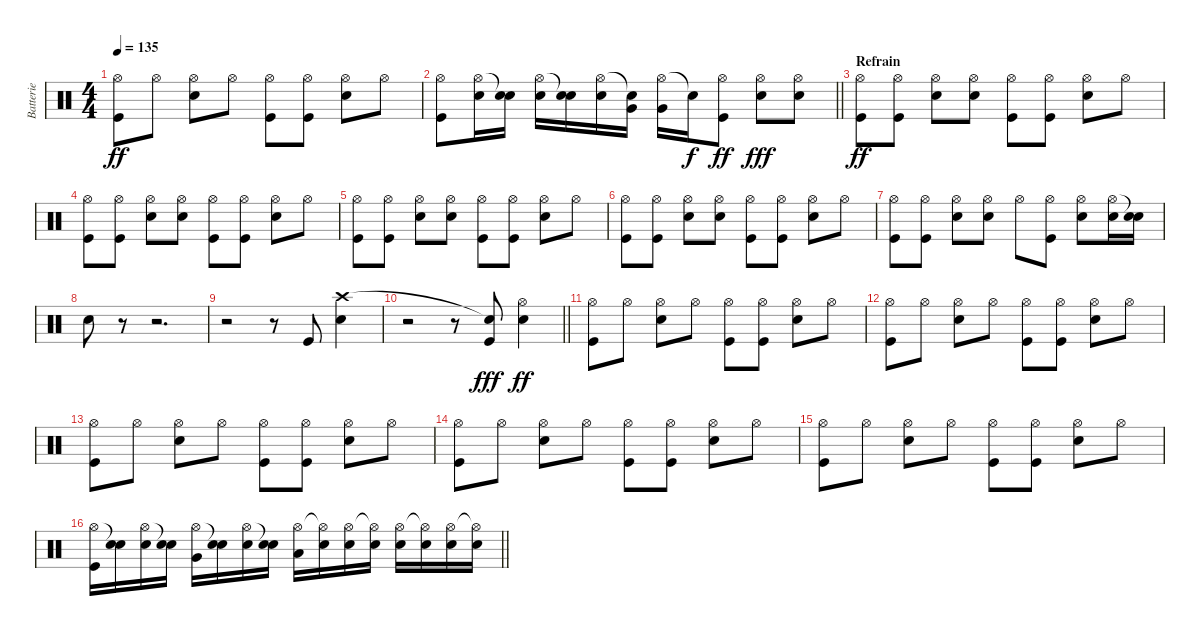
\track ("Batterie" "Batterie") {instrument percussion}
\staff {score}
\articulation defaults
\ts (4 4)
\tempo 135
\clef neutral
\ks c
("Hi-Hat (open)" "Kick (hit)").8{dy ff} "Hi-Hat (open)".8 ("Hi-Hat (open)" "Electric Snare (hit)").8 "Hi-Hat (open)".8 ("Hi-Hat (open)" "Kick (hit)").8 ("Hi-Hat (open)" "Kick (hit)").8 ("Hi-Hat (open)" "Electric Snare (hit)").8 "Hi-Hat (open)".8 |
\barLineRight lightlight
("Hi-Hat (open)" "Kick (hit)").8 ("Hi-Hat (open)" "Electric Snare (hit)").16 ("Snare (hit)"{t} "Electric Snare (hit)").16 ("Hi-Hat (open)" "Electric Snare (hit)").16 ("Snare (hit)"{t} "Electric Snare (hit)").16 ("Hi-Hat (open)" "Electric Snare (hit)").16 ("Snare (hit)"{t} "Very Low Tom (hit)").16 ("Hi-Hat (open)" "Very Low Tom (hit)").16 "Snare (hit)"{t}.16{dy f} ("Hi-Hat (open)" "Kick (hit)").8{dy ff} ("Hi-Hat (open)" "Electric Snare (hit)").8{dy fff} ("Hi-Hat (open)" "Electric Snare (hit)").8 |
\section ("" "Refrain")
("Hi-Hat (open)" "Kick (hit)").8{dy ff} ("Hi-Hat (open)" "Kick (hit)").8 ("Hi-Hat (open)" "Electric Snare (hit)").8 ("Hi-Hat (open)" "Electric Snare (hit)").8 ("Hi-Hat (open)" "Kick (hit)").8 ("Hi-Hat (open)" "Kick (hit)").8 ("Hi-Hat (open)" "Electric Snare (hit)").8 "Hi-Hat (open)".8 |
("Hi-Hat (open)" "Kick (hit)").8 ("Hi-Hat (open)" "Kick (hit)").8 ("Hi-Hat (open)" "Electric Snare (hit)").8 ("Hi-Hat (open)" "Electric Snare (hit)").8 ("Hi-Hat (open)" "Kick (hit)").8 ("Hi-Hat (open)" "Kick (hit)").8 ("Hi-Hat (open)" "Electric Snare (hit)").8 "Hi-Hat (open)".8 |
("Hi-Hat (open)" "Kick (hit)").8 ("Hi-Hat (open)" "Kick (hit)").8 ("Hi-Hat (open)" "Electric Snare (hit)").8 ("Hi-Hat (open)" "Electric Snare (hit)").8 ("Hi-Hat (open)" "Kick (hit)").8 ("Hi-Hat (open)" "Kick (hit)").8 ("Hi-Hat (open)" "Electric Snare (hit)").8 "Hi-Hat (open)".8 |
("Hi-Hat (open)" "Kick (hit)").8 ("Hi-Hat (open)" "Kick (hit)").8 ("Hi-Hat (open)" "Electric Snare (hit)").8 ("Hi-Hat (open)" "Electric Snare (hit)").8 ("Hi-Hat (open)" "Kick (hit)").8 ("Hi-Hat (open)" "Kick (hit)").8 ("Hi-Hat (open)" "Electric Snare (hit)").8 "Hi-Hat (open)".8 |
("Hi-Hat (open)" "Kick (hit)").8 ("Hi-Hat (open)" "Kick (hit)").8 ("Hi-Hat (open)" "Electric Snare (hit)").8 ("Hi-Hat (open)" "Electric Snare (hit)").8 "Hi-Hat (open)".8 ("Hi-Hat (open)" "Kick (hit)").8 ("Hi-Hat (open)" "Electric Snare (hit)").8 ("Hi-Hat (open)" "Electric Snare (hit)").16 ("Snare (hit)"{t} "Electric Snare (hit)").16 |
"Electric Snare (hit)".8 r.8 r.2{d} |
r.2 r.8 "Kick (hit)".8 ("Crash high (hit)" "Electric Snare (hit)").4 |
\barLineRight lightlight
r.2 r.8 ("Snare (hit)"{t} "Kick (hit)").8{dy fff} ("Hi-Hat (open)" "Electric Snare (hit)").4{dy ff} |
\section ("" "")
("Hi-Hat (open)" "Kick (hit)").8 "Hi-Hat (open)".8 ("Hi-Hat (open)" "Electric Snare (hit)").8 "Hi-Hat (open)".8 ("Hi-Hat (open)" "Kick (hit)").8 ("Hi-Hat (open)" "Kick (hit)").8 ("Hi-Hat (open)" "Electric Snare (hit)").8 "Hi-Hat (open)".8 |
("Hi-Hat (open)" "Kick (hit)").8 "Hi-Hat (open)".8 ("Hi-Hat (open)" "Electric Snare (hit)").8 "Hi-Hat (open)".8 ("Hi-Hat (open)" "Kick (hit)").8 ("Hi-Hat (open)" "Kick (hit)").8 ("Hi-Hat (open)" "Electric Snare (hit)").8 "Hi-Hat (open)".8 |
("Hi-Hat (open)" "Kick (hit)").8 "Hi-Hat (open)".8 ("Hi-Hat (open)" "Electric Snare (hit)").8 "Hi-Hat (open)".8 ("Hi-Hat (open)" "Kick (hit)").8 ("Hi-Hat (open)" "Kick (hit)").8 ("Hi-Hat (open)" "Electric Snare (hit)").8 "Hi-Hat (open)".8 |
("Hi-Hat (open)" "Kick (hit)").8 "Hi-Hat (open)".8 ("Hi-Hat (open)" "Electric Snare (hit)").8 "Hi-Hat (open)".8 ("Hi-Hat (open)" "Kick (hit)").8 ("Hi-Hat (open)" "Kick (hit)").8 ("Hi-Hat (open)" "Electric Snare (hit)").8 "Hi-Hat (open)".8 |
("Hi-Hat (open)" "Kick (hit)").8 "Hi-Hat (open)".8 ("Hi-Hat (open)" "Electric Snare (hit)").8 "Hi-Hat (open)".8 ("Hi-Hat (open)" "Kick (hit)").8 ("Hi-Hat (open)" "Kick (hit)").8 ("Hi-Hat (open)" "Electric Snare (hit)").8 "Hi-Hat (open)".8 |
\barLineRight lightlight
("Hi-Hat (open)" "Kick (hit)").16 ("Snare (hit)"{t} "Electric Snare (hit)").16 ("Hi-Hat (open)" "Electric Snare (hit)").16 ("Snare (hit)"{t} "Electric Snare (hit)").16 ("Hi-Hat (open)" "Very Low Tom (hit)").16 ("Snare (hit)"{t} "Electric Snare (hit)").16 ("Hi-Hat (open)" "Electric Snare (hit)").16 ("Snare (hit)"{t} "Electric Snare (hit)").16 ("Hi-Hat (open)" "Low Tom (hit)").16 ("Hi-Hat (open)"{t} "Electric Snare (hit)").16 ("Hi-Hat (open)" "Electric Snare (hit)").16 ("Hi-Hat (open)"{t} "Electric Snare (hit)").16 ("Hi-Hat (open)" "Electric Snare (hit)").16 ("Hi-Hat (open)"{t} "Electric Snare (hit)").16 ("Hi-Hat (open)" "Electric Snare (hit)").16 ("Hi-Hat (open)"{t} "Electric Snare (hit)").16
